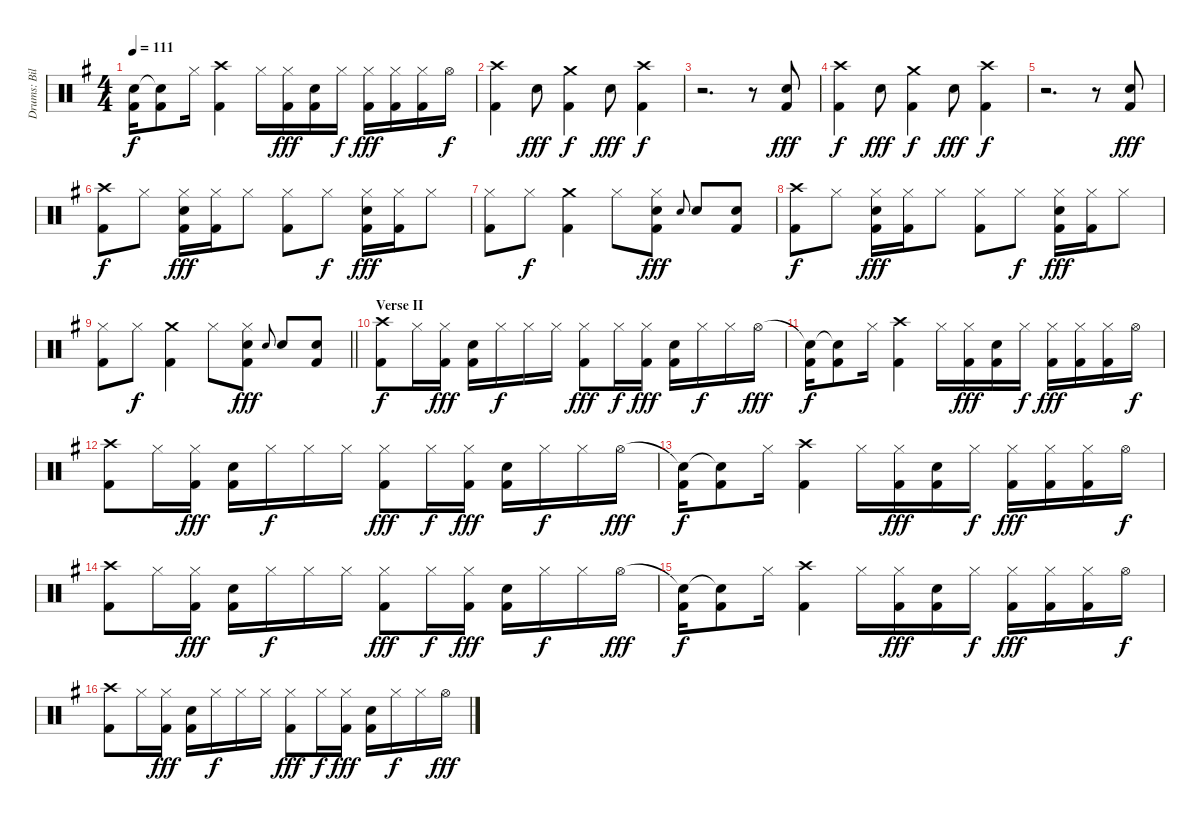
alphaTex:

\track ("Drums: Bill" "Drums: Bil") {instrument percussion}
\staff {score}
\articulation defaults
\ts (4 4)
\tempo 111
\clef neutral
\ks g
("Snare (hit)"{t} "Kick (hit) 2").16{dy f} ("Snare (hit)"{t} "Kick (hit) 2").8 "Hi-Hat (closed)".16 ("Crash high (hit)" "Kick (hit) 2").4 "Hi-Hat (closed)".16 ("Hi-Hat (closed)" "Kick (hit) 2").16{dy fff} ("Electric Snare (hit)" "Kick (hit) 2").16 "Hi-Hat (closed)".16{dy f} ("Hi-Hat (closed)" "Kick (hit) 2").16{dy fff} ("Hi-Hat (closed)" "Kick (hit) 2").16 ("Hi-Hat (closed)" "Kick (hit) 2").16 "Hi-Hat (open)".16{dy f} |
("Crash high (hit)" "Kick (hit) 2").4 "Electric Snare (hit)".8{dy fff} ("Crash medium (hit)" "Kick (hit) 2").4{dy f} "Electric Snare (hit)".8{dy fff} ("Crash high (hit)" "Kick (hit) 2").4{dy f} |
r.2{d} r.8 ("Electric Snare (hit)" "Kick (hit) 2").8{dy fff} |
("Crash high (hit)" "Kick (hit) 2").4{dy f} "Electric Snare (hit)".8{dy fff} ("Crash medium (hit)" "Kick (hit) 2").4{dy f} "Electric Snare (hit)".8{dy fff} ("Crash high (hit)" "Kick (hit) 2").4{dy f} |
r.2{d} r.8 ("Electric Snare (hit)" "Kick (hit) 2").8{dy fff} |
("Crash high (hit)" "Kick (hit) 2").8{dy f} "Hi-Hat (closed)".8 ("Hi-Hat (closed)" "Electric Snare (hit)" "Kick (hit) 2").16{dy fff} ("Hi-Hat (closed)" "Kick (hit) 2").16 "Hi-Hat (closed)".8 ("Hi-Hat (closed)" "Kick (hit) 2").8 "Hi-Hat (closed)".8{dy f} ("Hi-Hat (closed)" "Electric Snare (hit)" "Kick (hit) 2").16{dy fff} ("Hi-Hat (closed)" "Kick (hit) 2").16 "Hi-Hat (closed)".8 |
("Hi-Hat (closed)" "Kick (hit) 2").8 "Hi-Hat (closed)".8{dy f} ("Crash medium (hit)" "Kick (hit) 2").4 "Hi-Hat (closed)".8 ("Hi-Hat (closed)" "Electric Snare (hit)" "Kick (hit) 2").8{dy fff} "Snare (hit) 2".8{gr onbeat} "Electric Snare (hit)".8 ("Electric Snare (hit)" "Kick (hit) 2").8 |
("Crash high (hit)" "Kick (hit) 2").8{dy f} "Hi-Hat (closed)".8 ("Hi-Hat (closed)" "Electric Snare (hit)" "Kick (hit) 2").16{dy fff} ("Hi-Hat (closed)" "Kick (hit) 2").16 "Hi-Hat (closed)".8 ("Hi-Hat (closed)" "Kick (hit) 2").8 "Hi-Hat (closed)".8{dy f} ("Hi-Hat (closed)" "Electric Snare (hit)" "Kick (hit) 2").16{dy fff} ("Hi-Hat (closed)" "Kick (hit) 2").16 "Hi-Hat (closed)".8 |
\barLineRight lightlight
("Hi-Hat (closed)" "Kick (hit) 2").8 "Hi-Hat (closed)".8{dy f} ("Crash medium (hit)" "Kick (hit) 2").4 "Hi-Hat (closed)".8 ("Hi-Hat (closed)" "Electric Snare (hit)" "Kick (hit) 2").8{dy fff} "Snare (hit) 2".8{gr onbeat} "Electric Snare (hit)".8 ("Electric Snare (hit)" "Kick (hit) 2").8 |
\section ("" "Verse II")
("Crash high (hit)" "Kick (hit) 2").8{dy f} "Hi-Hat (closed)".16 ("Hi-Hat (closed)" "Kick (hit) 2").16{dy fff} ("Electric Snare (hit)" "Kick (hit) 2").16 "Hi-Hat (closed)".16{dy f} "Hi-Hat (closed)".16 "Hi-Hat (closed)".16 ("Hi-Hat (closed)" "Kick (hit) 2").8{dy fff} "Hi-Hat (closed)".16{dy f} ("Hi-Hat (closed)" "Kick (hit) 2").16{dy fff} ("Electric Snare (hit)" "Kick (hit) 2").16 "Hi-Hat (closed)".16{dy f} "Hi-Hat (closed)".16 "Hi-Hat (open)".16{dy fff} |
("Snare (hit)"{t} "Kick (hit) 2").16{dy f} ("Snare (hit)"{t} "Kick (hit) 2").8 "Hi-Hat (closed)".16 ("Crash high (hit)" "Kick (hit) 2").4 "Hi-Hat (closed)".16 ("Hi-Hat (closed)" "Kick (hit) 2").16{dy fff} ("Electric Snare (hit)" "Kick (hit) 2").16 "Hi-Hat (closed)".16{dy f} ("Hi-Hat (closed)" "Kick (hit) 2").16{dy fff} ("Hi-Hat (closed)" "Kick (hit) 2").16 ("Hi-Hat (closed)" "Kick (hit) 2").16 "Hi-Hat (open)".16{dy f} |
("Crash high (hit)" "Kick (hit) 2").8 "Hi-Hat (closed)".16 ("Hi-Hat (closed)" "Kick (hit) 2").16{dy fff} ("Electric Snare (hit)" "Kick (hit) 2").16 "Hi-Hat (closed)".16{dy f} "Hi-Hat (closed)".16 "Hi-Hat (closed)".16 ("Hi-Hat (closed)" "Kick (hit) 2").8{dy fff} "Hi-Hat (closed)".16{dy f} ("Hi-Hat (closed)" "Kick (hit) 2").16{dy fff} ("Electric Snare (hit)" "Kick (hit) 2").16 "Hi-Hat (closed)".16{dy f} "Hi-Hat (closed)".16 "Hi-Hat (open)".16{dy fff} |
("Snare (hit)"{t} "Kick (hit) 2").16{dy f} ("Snare (hit)"{t} "Kick (hit) 2").8 "Hi-Hat (closed)".16 ("Crash high (hit)" "Kick (hit) 2").4 "Hi-Hat (closed)".16 ("Hi-Hat (closed)" "Kick (hit) 2").16{dy fff} ("Electric Snare (hit)" "Kick (hit) 2").16 "Hi-Hat (closed)".16{dy f} ("Hi-Hat (closed)" "Kick (hit) 2").16{dy fff} ("Hi-Hat (closed)" "Kick (hit) 2").16 ("Hi-Hat (closed)" "Kick (hit) 2").16 "Hi-Hat (open)".16{dy f} |
("Crash high (hit)" "Kick (hit) 2").8 "Hi-Hat (closed)".16 ("Hi-Hat (closed)" "Kick (hit) 2").16{dy fff} ("Electric Snare (hit)" "Kick (hit) 2").16 "Hi-Hat (closed)".16{dy f} "Hi-Hat (closed)".16 "Hi-Hat (closed)".16 ("Hi-Hat (closed)" "Kick (hit) 2").8{dy fff} "Hi-Hat (closed)".16{dy f} ("Hi-Hat (closed)" "Kick (hit) 2").16{dy fff} ("Electric Snare (hit)" "Kick (hit) 2").16 "Hi-Hat (closed)".16{dy f} "Hi-Hat (closed)".16 "Hi-Hat (open)".16{dy fff} |
("Snare (hit)"{t} "Kick (hit) 2").16{dy f} ("Snare (hit)"{t} "Kick (hit) 2").8 "Hi-Hat (closed)".16 ("Crash high (hit)" "Kick (hit) 2").4 "Hi-Hat (closed)".16 ("Hi-Hat (closed)" "Kick (hit) 2").16{dy fff} ("Electric Snare (hit)" "Kick (hit) 2").16 "Hi-Hat (closed)".16{dy f} ("Hi-Hat (closed)" "Kick (hit) 2").16{dy fff} ("Hi-Hat (closed)" "Kick (hit) 2").16 ("Hi-Hat (closed)" "Kick (hit) 2").16 "Hi-Hat (open)".16{dy f} |
("Crash high (hit)" "Kick (hit) 2").8 "Hi-Hat (closed)".16 ("Hi-Hat (closed)" "Kick (hit) 2").16{dy fff} ("Electric Snare (hit)" "Kick (hit) 2").16 "Hi-Hat (closed)".16{dy f} "Hi-Hat (closed)".16 "Hi-Hat (closed)".16 ("Hi-Hat (closed)" "Kick (hit) 2").8{dy fff} "Hi-Hat (closed)".16{dy f} ("Hi-Hat (closed)" "Kick (hit) 2").16{dy fff} ("Electric Snare (hit)" "Kick (hit) 2").16 "Hi-Hat (closed)".16{dy f} "Hi-Hat (closed)".16 "Hi-Hat (open)".16{dy fff}
